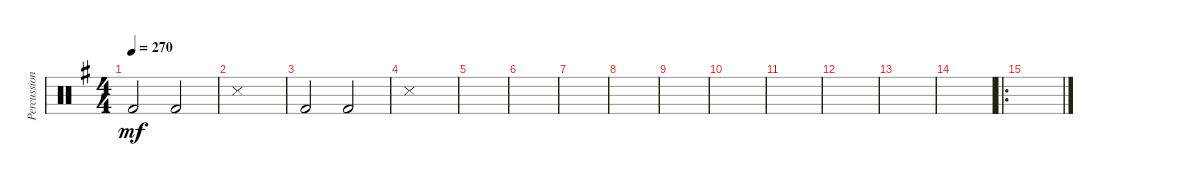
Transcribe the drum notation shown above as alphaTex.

\track ("Percussion" "Percussion") {instrument percussion}
\staff {score}
\articulation defaults
\ts (4 4)
\tempo 270
\clef neutral
\ks g "Kick (hit) 2".2{dy mf} "Kick (hit) 2".2
|
"Snare (side stick) 3".1 |
"Kick (hit) 2".2 "Kick (hit) 2".2 |
"Snare (side stick) 3".1 |
|
|
\section ("" "")
|
|
|
|
|
|
|
|
\ro
